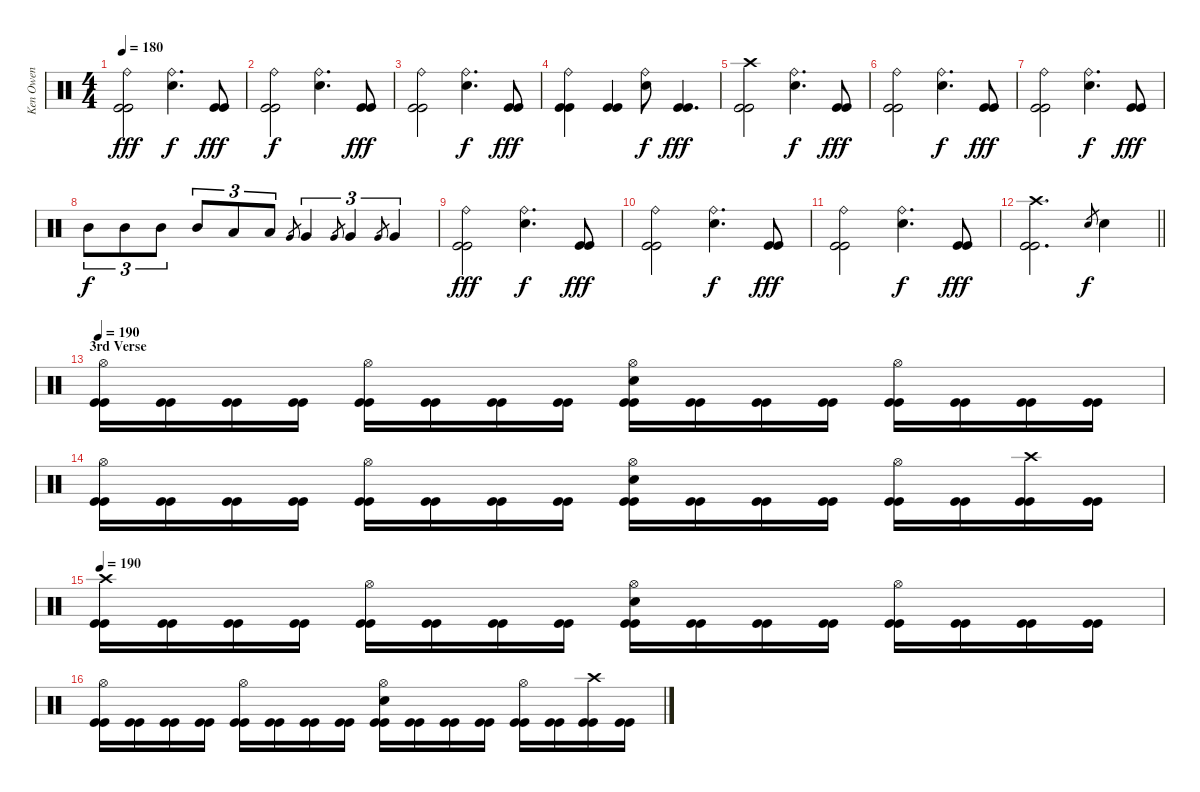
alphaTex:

\track ("Ken Owen" "Ken Owen") {instrument percussion}
\staff {score}
\articulation defaults
\ts (4 4)
\tempo 180
\clef neutral
\ks c
("Ride (bell)" "Kick (hit)" "Kick (hit)").2{dy fff} ("Ride (bell)" "Snare (hit) 2").4{d dy f} ("Kick (hit)" "Kick (hit)").8{dy fff} |
("Ride (bell)" "Kick (hit)" "Kick (hit)").2{dy f} ("Ride (bell)" "Snare (hit) 2").4{d} ("Kick (hit)" "Kick (hit)").8{dy fff} |
("Ride (bell)" "Kick (hit)" "Kick (hit)").2 ("Ride (bell)" "Snare (hit) 2").4{d dy f} ("Kick (hit)" "Kick (hit)").8{dy fff} |
("Ride (bell)" "Kick (hit)" "Kick (hit)").4 ("Kick (hit)" "Kick (hit)").4 ("Ride (bell)" "Snare (hit) 2").8{dy f} ("Kick (hit)" "Kick (hit)").4{d dy fff} |
("Crash high (hit)" "Kick (hit)" "Kick (hit)").2 ("Ride (bell)" "Snare (hit) 2").4{d dy f} ("Kick (hit)" "Kick (hit)").8{dy fff} |
("Ride (bell)" "Kick (hit)" "Kick (hit)").2 ("Ride (bell)" "Snare (hit) 2").4{d dy f} ("Kick (hit)" "Kick (hit)").8{dy fff} |
("Ride (bell)" "Kick (hit)" "Kick (hit)").2 ("Ride (bell)" "Snare (hit) 2").4{d dy f} ("Kick (hit)" "Kick (hit)").8{dy fff} |
"Mid Tom (hit)".8{tu (3 2) dy f} "Mid Tom (hit)".8{tu (3 2)} "Mid Tom (hit)".8{tu (3 2)} "Mid Tom (hit)".8{tu (3 2)} "Low Tom (hit)".8{tu (3 2)} "Low Tom (hit)".8{tu (3 2)} "Very Low Tom (hit)".8{gr} "Very Low Tom (hit)".4{tu (3 2)} "Very Low Tom (hit)".8{gr} "Very Low Tom (hit)".4{tu (3 2)} "Very Low Tom (hit)".8{gr} "Very Low Tom (hit)".4{tu (3 2)} |
("Ride (bell)" "Kick (hit)" "Kick (hit)").2{dy fff} ("Ride (bell)" "Snare (hit) 2").4{d dy f} ("Kick (hit)" "Kick (hit)").8{dy fff} |
("Ride (bell)" "Kick (hit)" "Kick (hit)").2 ("Ride (bell)" "Snare (hit) 2").4{d dy f} ("Kick (hit)" "Kick (hit)").8{dy fff} |
("Ride (bell)" "Kick (hit)" "Kick (hit)").2 ("Ride (bell)" "Snare (hit) 2").4{d dy f} ("Kick (hit)" "Kick (hit)").8{dy fff} |
\barLineRight lightlight
("Crash high (hit)" "Kick (hit)" "Kick (hit)").2{d} "Snare (hit) 2".8{gr dy f} "Snare (hit) 2".4 |
\section ("" "3rd Verse")
\tempo 190
("Hi-Hat (open)" "Kick (hit)" "Kick (hit)").16 ("Kick (hit)" "Kick (hit)").16 ("Kick (hit)" "Kick (hit)").16 ("Kick (hit)" "Kick (hit)").16 ("Hi-Hat (open)" "Kick (hit)" "Kick (hit)").16 ("Kick (hit)" "Kick (hit)").16 ("Kick (hit)" "Kick (hit)").16 ("Kick (hit)" "Kick (hit)").16 ("Hi-Hat (open)" "Snare (hit) 2" "Kick (hit)" "Kick (hit)").16 ("Kick (hit)" "Kick (hit)").16 ("Kick (hit)" "Kick (hit)").16 ("Kick (hit)" "Kick (hit)").16 ("Hi-Hat (open)" "Kick (hit)" "Kick (hit)").16 ("Kick (hit)" "Kick (hit)").16 ("Kick (hit)" "Kick (hit)").16 ("Kick (hit)" "Kick (hit)").16 |
("Hi-Hat (open)" "Kick (hit)" "Kick (hit)").16 ("Kick (hit)" "Kick (hit)").16 ("Kick (hit)" "Kick (hit)").16 ("Kick (hit)" "Kick (hit)").16 ("Hi-Hat (open)" "Kick (hit)" "Kick (hit)").16 ("Kick (hit)" "Kick (hit)").16 ("Kick (hit)" "Kick (hit)").16 ("Kick (hit)" "Kick (hit)").16 ("Hi-Hat (open)" "Snare (hit) 2" "Kick (hit)" "Kick (hit)").16 ("Kick (hit)" "Kick (hit)").16 ("Kick (hit)" "Kick (hit)").16 ("Kick (hit)" "Kick (hit)").16 ("Hi-Hat (open)" "Kick (hit)" "Kick (hit)").16 ("Kick (hit)" "Kick (hit)").16 ("Crash high (hit)" "Kick (hit)" "Kick (hit)").16 ("Kick (hit)" "Kick (hit)").16 |
\tempo 190
("Crash high (hit)" "Kick (hit)" "Kick (hit)").16 ("Kick (hit)" "Kick (hit)").16 ("Kick (hit)" "Kick (hit)").16 ("Kick (hit)" "Kick (hit)").16 ("Hi-Hat (open)" "Kick (hit)" "Kick (hit)").16 ("Kick (hit)" "Kick (hit)").16 ("Kick (hit)" "Kick (hit)").16 ("Kick (hit)" "Kick (hit)").16 ("Hi-Hat (open)" "Snare (hit) 2" "Kick (hit)" "Kick (hit)").16 ("Kick (hit)" "Kick (hit)").16 ("Kick (hit)" "Kick (hit)").16 ("Kick (hit)" "Kick (hit)").16 ("Hi-Hat (open)" "Kick (hit)" "Kick (hit)").16 ("Kick (hit)" "Kick (hit)").16 ("Kick (hit)" "Kick (hit)").16 ("Kick (hit)" "Kick (hit)").16 |
("Hi-Hat (open)" "Kick (hit)" "Kick (hit)").16 ("Kick (hit)" "Kick (hit)").16 ("Kick (hit)" "Kick (hit)").16 ("Kick (hit)" "Kick (hit)").16 ("Hi-Hat (open)" "Kick (hit)" "Kick (hit)").16 ("Kick (hit)" "Kick (hit)").16 ("Kick (hit)" "Kick (hit)").16 ("Kick (hit)" "Kick (hit)").16 ("Hi-Hat (open)" "Snare (hit) 2" "Kick (hit)" "Kick (hit)").16 ("Kick (hit)" "Kick (hit)").16 ("Kick (hit)" "Kick (hit)").16 ("Kick (hit)" "Kick (hit)").16 ("Hi-Hat (open)" "Kick (hit)" "Kick (hit)").16 ("Kick (hit)" "Kick (hit)").16 ("Crash high (hit)" "Kick (hit)" "Kick (hit)").16 ("Kick (hit)" "Kick (hit)").16
